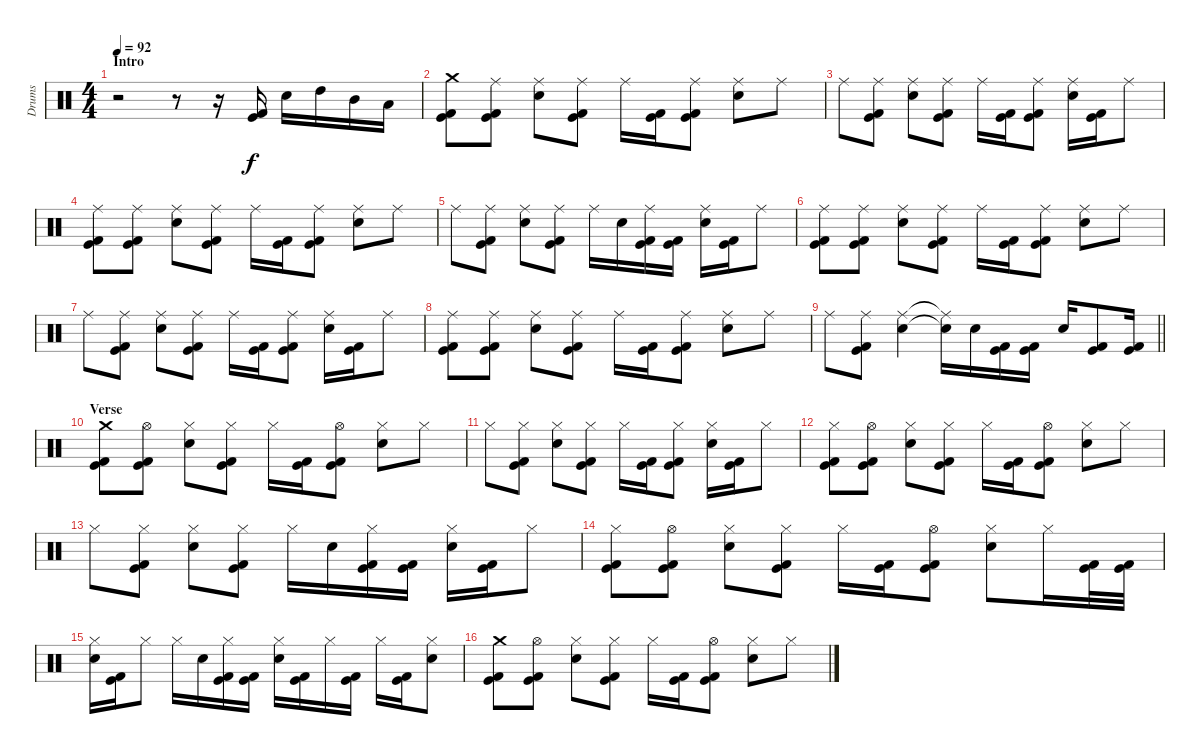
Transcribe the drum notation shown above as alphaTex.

\track ("Drums" "Drums") {instrument percussion}
\staff {score}
\articulation defaults
\ts (4 4)
\section ("" "Intro")
\tempo 92
\clef neutral
\ks c
r.2{dy f} r.8 r.16 ("Kick (hit)" "Kick (hit) 2").16 "Electric Snare (hit)".16 "High Tom (hit)".16 "Mid Tom (hit)".16 "Low Tom (hit)".16 |
("Crash medium (hit)" "Kick (hit)" "Kick (hit) 2").8 ("Ride (middle)" "Kick (hit)" "Kick (hit) 2").8 ("Ride (middle)" "Electric Snare (hit)").8 ("Ride (middle)" "Kick (hit)" "Kick (hit) 2").8 "Ride (middle)".16 ("Kick (hit)" "Kick (hit) 2").16 ("Ride (middle)" "Kick (hit)" "Kick (hit) 2").8 ("Ride (middle)" "Electric Snare (hit)").8 "Ride (middle)".8 |
"Ride (middle)".8 ("Ride (middle)" "Kick (hit)" "Kick (hit) 2").8 ("Ride (middle)" "Electric Snare (hit)").8 ("Ride (middle)" "Kick (hit)" "Kick (hit) 2").8 "Ride (middle)".16 ("Kick (hit)" "Kick (hit) 2").16 ("Ride (middle)" "Kick (hit)" "Kick (hit) 2").8 ("Ride (middle)" "Electric Snare (hit)").16 ("Kick (hit)" "Kick (hit) 2").16 "Ride (middle)".8 |
("Ride (middle)" "Kick (hit)" "Kick (hit) 2").8 ("Ride (middle)" "Kick (hit)" "Kick (hit) 2").8 ("Ride (middle)" "Electric Snare (hit)").8 ("Ride (middle)" "Kick (hit)" "Kick (hit) 2").8 "Ride (middle)".16 ("Kick (hit)" "Kick (hit) 2").16 ("Ride (middle)" "Kick (hit)" "Kick (hit) 2").8 ("Ride (middle)" "Electric Snare (hit)").8 "Ride (middle)".8 |
"Ride (middle)".8 ("Ride (middle)" "Kick (hit)" "Kick (hit) 2").8 ("Ride (middle)" "Electric Snare (hit)").8 ("Ride (middle)" "Kick (hit)" "Kick (hit) 2").8 "Ride (middle)".16 "Electric Snare (hit)".16 ("Ride (middle)" "Kick (hit)" "Kick (hit) 2").16 ("Kick (hit)" "Kick (hit) 2").16 ("Ride (middle)" "Electric Snare (hit)").16 ("Kick (hit)" "Kick (hit) 2").16 "Ride (middle)".8 |
("Ride (middle)" "Kick (hit)" "Kick (hit) 2").8 ("Ride (middle)" "Kick (hit)" "Kick (hit) 2").8 ("Ride (middle)" "Electric Snare (hit)").8 ("Ride (middle)" "Kick (hit)" "Kick (hit) 2").8 "Ride (middle)".16 ("Kick (hit)" "Kick (hit) 2").16 ("Ride (middle)" "Kick (hit)" "Kick (hit) 2").8 ("Ride (middle)" "Electric Snare (hit)").8 "Ride (middle)".8 |
"Ride (middle)".8 ("Ride (middle)" "Kick (hit)" "Kick (hit) 2").8 ("Ride (middle)" "Electric Snare (hit)").8 ("Ride (middle)" "Kick (hit)" "Kick (hit) 2").8 "Ride (middle)".16 ("Kick (hit)" "Kick (hit) 2").16 ("Ride (middle)" "Kick (hit)" "Kick (hit) 2").8 ("Ride (middle)" "Electric Snare (hit)").16 ("Kick (hit)" "Kick (hit) 2").16 "Ride (middle)".8 |
("Ride (middle)" "Kick (hit)" "Kick (hit) 2").8 ("Ride (middle)" "Kick (hit)" "Kick (hit) 2").8 ("Ride (middle)" "Electric Snare (hit)").8 ("Ride (middle)" "Kick (hit)" "Kick (hit) 2").8 "Ride (middle)".16 ("Kick (hit)" "Kick (hit) 2").16 ("Ride (middle)" "Kick (hit)" "Kick (hit) 2").8 ("Ride (middle)" "Electric Snare (hit)").8 "Ride (middle)".8 |
\barLineRight lightlight "Ride (middle)".8
("Ride (middle)" "Kick (hit)" "Kick (hit) 2").8 ("Ride (middle)" "Electric Snare (hit)").4 ("Ride (middle)"{t} "Electric Snare (hit)"{t}).16 "Electric Snare (hit)".16 ("Kick (hit)" "Kick (hit) 2").16 ("Kick (hit)" "Kick (hit) 2").16 "Electric Snare (hit)".16 ("Kick (hit)" "Kick (hit) 2").8 ("Kick (hit)" "Kick (hit) 2").16 |
\section ("" "Verse")
("Crash medium (hit)" "Kick (hit)" "Kick (hit) 2").8 ("Hi-Hat (open)" "Kick (hit)" "Kick (hit) 2").8 ("Hi-Hat (closed)" "Electric Snare (hit)").8 ("Hi-Hat (closed)" "Kick (hit)" "Kick (hit) 2").8 "Hi-Hat (closed)".16 ("Kick (hit)" "Kick (hit) 2").16 ("Hi-Hat (open)" "Kick (hit)" "Kick (hit) 2").8 ("Hi-Hat (closed)" "Electric Snare (hit)").8 "Hi-Hat (closed)".8 |
"Hi-Hat (closed)".8 ("Hi-Hat (closed)" "Kick (hit)" "Kick (hit) 2").8 ("Hi-Hat (closed)" "Electric Snare (hit)").8 ("Hi-Hat (closed)" "Kick (hit)" "Kick (hit) 2").8 "Hi-Hat (closed)".16 ("Kick (hit)" "Kick (hit) 2").16 ("Hi-Hat (closed)" "Kick (hit)" "Kick (hit) 2").8 ("Hi-Hat (closed)" "Electric Snare (hit)").16 ("Kick (hit)" "Kick (hit) 2").16 "Hi-Hat (closed)".8 |
("Hi-Hat (closed)" "Kick (hit)" "Kick (hit) 2").8 ("Hi-Hat (open)" "Kick (hit)" "Kick (hit) 2").8 ("Hi-Hat (closed)" "Electric Snare (hit)").8 ("Hi-Hat (closed)" "Kick (hit)" "Kick (hit) 2").8 "Hi-Hat (closed)".16 ("Kick (hit)" "Kick (hit) 2").16 ("Hi-Hat (open)" "Kick (hit)" "Kick (hit) 2").8 ("Hi-Hat (closed)" "Electric Snare (hit)").8 "Hi-Hat (closed)".8 |
"Hi-Hat (closed)".8 ("Hi-Hat (closed)" "Kick (hit)" "Kick (hit) 2").8 ("Hi-Hat (closed)" "Electric Snare (hit)").8 ("Hi-Hat (closed)" "Kick (hit)" "Kick (hit) 2").8 "Hi-Hat (closed)".16 "Electric Snare (hit)".16 ("Hi-Hat (closed)" "Kick (hit)" "Kick (hit) 2").16 ("Kick (hit)" "Kick (hit) 2").16 ("Hi-Hat (closed)" "Electric Snare (hit)").16 ("Kick (hit)" "Kick (hit) 2").16 "Hi-Hat (closed)".8 |
("Hi-Hat (closed)" "Kick (hit)" "Kick (hit) 2").8 ("Hi-Hat (open)" "Kick (hit)" "Kick (hit) 2").8 ("Hi-Hat (closed)" "Electric Snare (hit)").8 ("Hi-Hat (closed)" "Kick (hit)" "Kick (hit) 2").8 "Hi-Hat (closed)".16 ("Kick (hit)" "Kick (hit) 2").16 ("Hi-Hat (open)" "Kick (hit)" "Kick (hit) 2").8 ("Hi-Hat (closed)" "Electric Snare (hit)").8 "Hi-Hat (closed)".16 ("Kick (hit)" "Kick (hit) 2").32 ("Kick (hit)" "Kick (hit) 2").32 |
("Hi-Hat (closed)" "Electric Snare (hit)").16 ("Kick (hit)" "Kick (hit) 2").16 "Hi-Hat (closed)".8 "Hi-Hat (closed)".16 "Electric Snare (hit)".16 ("Hi-Hat (closed)" "Kick (hit)" "Kick (hit) 2").16 ("Kick (hit)" "Kick (hit) 2").16 ("Hi-Hat (closed)" "Electric Snare (hit)").16 ("Kick (hit)" "Kick (hit) 2").16 "Hi-Hat (closed)".16 ("Kick (hit)" "Kick (hit) 2").16 "Hi-Hat (closed)".16 ("Kick (hit)" "Kick (hit) 2").16 ("Hi-Hat (closed)" "Electric Snare (hit)").8 |
("Crash medium (hit)" "Kick (hit)" "Kick (hit) 2").8 ("Hi-Hat (open)" "Kick (hit)" "Kick (hit) 2").8 ("Hi-Hat (closed)" "Electric Snare (hit)").8 ("Hi-Hat (closed)" "Kick (hit)" "Kick (hit) 2").8 "Hi-Hat (closed)".16 ("Kick (hit)" "Kick (hit) 2").16 ("Hi-Hat (open)" "Kick (hit)" "Kick (hit) 2").8 ("Hi-Hat (closed)" "Electric Snare (hit)").8 "Hi-Hat (closed)".8
